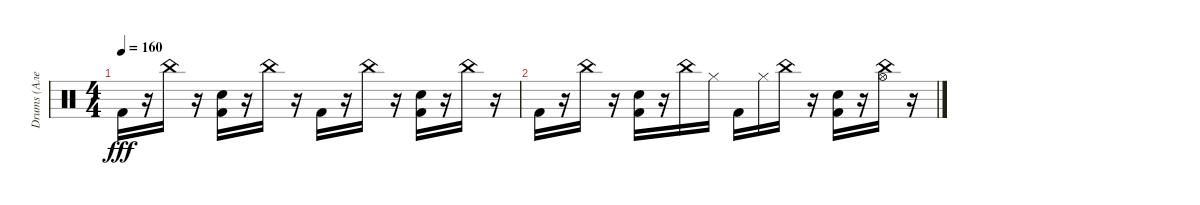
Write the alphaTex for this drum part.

\track ("Drums (Алексей Барзилович)" "Drums (Але") {instrument percussion}
\staff {score}
\articulation defaults
\ts (4 4)
\tempo 160
\clef neutral
\ks c "Kick (hit) 2".16{dy fff}
r.16 "China (hit)".16 r.16 ("Kick (hit) 2" "Electric Snare (hit)").16 r.16 "China (hit)".16 r.16 "Kick (hit) 2".16 r.16 "China (hit)".16 r.16 ("Electric Snare (hit)" "Kick (hit) 2").16 r.16 "China (hit)".16 r.16 |
"Kick (hit) 2".16 r.16 "China (hit)".16 r.16 ("Electric Snare (hit)" "Kick (hit) 2").16 r.16 "China (hit)".16 "Hi-Hat (closed)".16 "Kick (hit) 2".16 "Hi-Hat (closed)".16 "China (hit)".16 r.16 ("Kick (hit) 2" "Electric Snare (hit)").16 r.16 ("Hi-Hat (open)" "China (hit)").16 r.16
